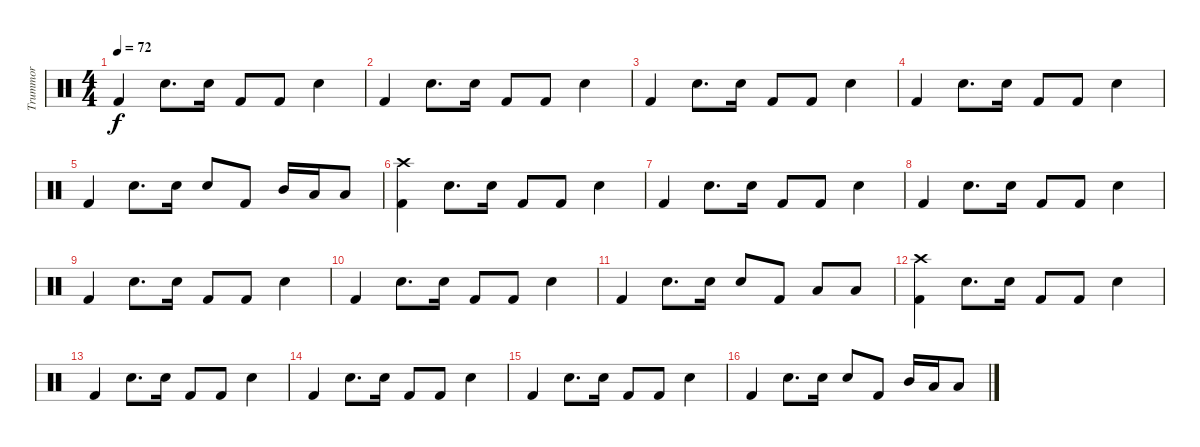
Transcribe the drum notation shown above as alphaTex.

\track ("Trummor" "Trummor") {instrument percussion}
\staff {score}
\articulation defaults
\ts (4 4)
\tempo 72
\clef neutral
\ks c "Kick (hit) 2".4{dy f} "Snare (hit) 2".8{d} "Snare (hit) 2".16 "Kick (hit) 2".8 "Kick (hit) 2".8 "Snare (hit) 2".4
|
"Kick (hit) 2".4 "Snare (hit) 2".8{d} "Snare (hit) 2".16 "Kick (hit) 2".8 "Kick (hit) 2".8 "Snare (hit) 2".4 |
"Kick (hit) 2".4 "Snare (hit) 2".8{d} "Snare (hit) 2".16 "Kick (hit) 2".8 "Kick (hit) 2".8 "Snare (hit) 2".4 |
"Kick (hit) 2".4 "Snare (hit) 2".8{d} "Snare (hit) 2".16 "Kick (hit) 2".8 "Kick (hit) 2".8 "Snare (hit) 2".4 |
"Kick (hit) 2".4 "Snare (hit) 2".8{d} "Snare (hit) 2".16 "Snare (hit) 2".8 "Kick (hit) 2".8 "Mid Tom (hit)".16 "Low Floor Tom (hit)".16 "Low Floor Tom (hit)".8 |
("Crash high (hit)" "Kick (hit) 2").4 "Snare (hit) 2".8{d} "Snare (hit) 2".16 "Kick (hit) 2".8 "Kick (hit) 2".8 "Snare (hit) 2".4 |
"Kick (hit) 2".4 "Snare (hit) 2".8{d} "Snare (hit) 2".16 "Kick (hit) 2".8 "Kick (hit) 2".8 "Snare (hit) 2".4 |
"Kick (hit) 2".4 "Snare (hit) 2".8{d} "Snare (hit) 2".16 "Kick (hit) 2".8 "Kick (hit) 2".8 "Snare (hit) 2".4 |
"Kick (hit) 2".4 "Snare (hit) 2".8{d} "Snare (hit) 2".16 "Kick (hit) 2".8 "Kick (hit) 2".8 "Snare (hit) 2".4 |
"Kick (hit) 2".4 "Snare (hit) 2".8{d} "Snare (hit) 2".16 "Kick (hit) 2".8 "Kick (hit) 2".8 "Snare (hit) 2".4 |
"Kick (hit) 2".4 "Snare (hit) 2".8{d} "Snare (hit) 2".16 "Snare (hit) 2".8 "Kick (hit) 2".8 "Low Floor Tom (hit)".8 "Low Floor Tom (hit)".8 |
("Crash high (hit)" "Kick (hit) 2").4 "Snare (hit) 2".8{d} "Snare (hit) 2".16 "Kick (hit) 2".8 "Kick (hit) 2".8 "Snare (hit) 2".4 |
"Kick (hit) 2".4 "Snare (hit) 2".8{d} "Snare (hit) 2".16 "Kick (hit) 2".8 "Kick (hit) 2".8 "Snare (hit) 2".4 |
"Kick (hit) 2".4 "Snare (hit) 2".8{d} "Snare (hit) 2".16 "Kick (hit) 2".8 "Kick (hit) 2".8 "Snare (hit) 2".4 |
"Kick (hit) 2".4 "Snare (hit) 2".8{d} "Snare (hit) 2".16 "Kick (hit) 2".8 "Kick (hit) 2".8 "Snare (hit) 2".4 |
"Kick (hit) 2".4 "Snare (hit) 2".8{d} "Snare (hit) 2".16 "Snare (hit) 2".8 "Kick (hit) 2".8 "Mid Tom (hit)".16 "Low Floor Tom (hit)".16 "Low Floor Tom (hit)".8
